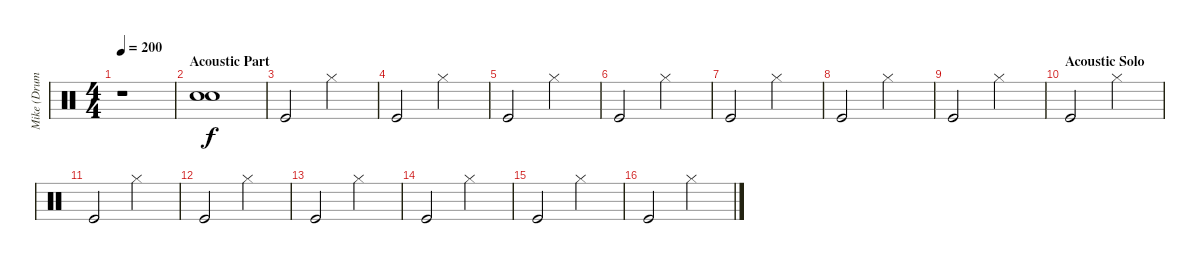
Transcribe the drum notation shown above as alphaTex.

\track ("Mike (Drums)" "Mike (Drum") {instrument percussion}
\staff {score}
\articulation defaults
\ts (4 4)
\tempo 200
\clef neutral
\ks c
r.1{dy fff} |
\section ("" "Acoustic Part")
("Snare (hit)"{t} "Snare (hit)"{t}).1{dy f} |
"Kick (hit)".2 "Hi-Hat (closed)".2 |
"Kick (hit)".2 "Hi-Hat (closed)".2 |
"Kick (hit)".2 "Hi-Hat (closed)".2 |
"Kick (hit)".2 "Hi-Hat (closed)".2 |
"Kick (hit)".2 "Hi-Hat (closed)".2 |
"Kick (hit)".2 "Hi-Hat (closed)".2 |
"Kick (hit)".2 "Hi-Hat (closed)".2 |
\section ("" "Acoustic Solo")
"Kick (hit)".2 "Hi-Hat (closed)".2 |
"Kick (hit)".2 "Hi-Hat (closed)".2 |
"Kick (hit)".2 "Hi-Hat (closed)".2 |
"Kick (hit)".2 "Hi-Hat (closed)".2 |
"Kick (hit)".2 "Hi-Hat (closed)".2 |
"Kick (hit)".2 "Hi-Hat (closed)".2 |
"Kick (hit)".2 "Hi-Hat (closed)".2
